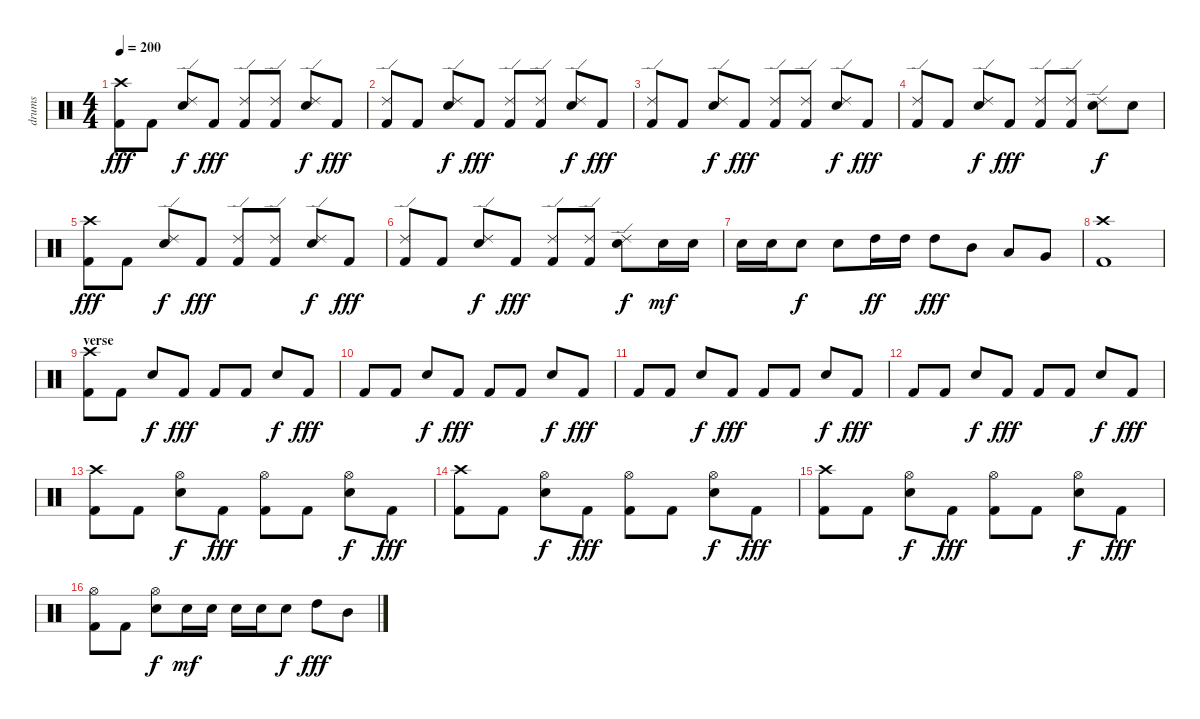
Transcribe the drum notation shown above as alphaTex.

\track ("drums" "drums") {instrument percussion}
\staff {score}
\articulation defaults
\ts (4 4)
\tempo 200
\clef neutral
\ks c
("Crash high (hit)" "Kick (hit) 2").8{dy fff} "Kick (hit) 2".8 ("Ride (edge) 2" "Snare (hit) 2").8{dy f} "Kick (hit) 2".8{dy fff} ("Ride (edge) 2" "Kick (hit) 2").8 ("Ride (edge) 2" "Kick (hit) 2").8 ("Ride (edge) 2" "Snare (hit) 2").8{dy f} "Kick (hit) 2".8{dy fff} |
("Ride (edge) 2" "Kick (hit) 2").8 "Kick (hit) 2".8 ("Ride (edge) 2" "Snare (hit) 2").8{dy f} "Kick (hit) 2".8{dy fff} ("Ride (edge) 2" "Kick (hit) 2").8 ("Ride (edge) 2" "Kick (hit) 2").8 ("Ride (edge) 2" "Snare (hit) 2").8{dy f} "Kick (hit) 2".8{dy fff} |
("Ride (edge) 2" "Kick (hit) 2").8 "Kick (hit) 2".8 ("Ride (edge) 2" "Snare (hit) 2").8{dy f} "Kick (hit) 2".8{dy fff} ("Ride (edge) 2" "Kick (hit) 2").8 ("Ride (edge) 2" "Kick (hit) 2").8 ("Ride (edge) 2" "Snare (hit) 2").8{dy f} "Kick (hit) 2".8{dy fff} |
("Ride (edge) 2" "Kick (hit) 2").8 "Kick (hit) 2".8 ("Ride (edge) 2" "Snare (hit) 2").8{dy f} "Kick (hit) 2".8{dy fff} ("Ride (edge) 2" "Kick (hit) 2").8 ("Ride (edge) 2" "Kick (hit) 2").8 ("Ride (edge) 2" "Snare (hit) 2").8{dy f} "Snare (hit) 2".8 |
("Crash high (hit)" "Kick (hit) 2").8{dy fff} "Kick (hit) 2".8 ("Ride (edge) 2" "Snare (hit) 2").8{dy f} "Kick (hit) 2".8{dy fff} ("Ride (edge) 2" "Kick (hit) 2").8 ("Ride (edge) 2" "Kick (hit) 2").8 ("Ride (edge) 2" "Snare (hit) 2").8{dy f} "Kick (hit) 2".8{dy fff} |
("Ride (edge) 2" "Kick (hit) 2").8 "Kick (hit) 2".8 ("Ride (edge) 2" "Snare (hit) 2").8{dy f} "Kick (hit) 2".8{dy fff} ("Ride (edge) 2" "Kick (hit) 2").8 ("Ride (edge) 2" "Kick (hit) 2").8 ("Ride (edge) 2" "Snare (hit) 2").8{dy f} "Snare (hit) 2".16{dy mf} "Snare (hit) 2".16 |
"Snare (hit) 2".16 "Snare (hit) 2".16 "Snare (hit) 2".8{dy f} "Snare (hit) 2".8 "High Tom (hit)".16{dy ff} "High Tom (hit)".16 "High Tom (hit)".8{dy fff} "Mid Tom (hit)".8 "Low Tom (hit)".8 "Very Low Tom (hit)".8 |
("Crash high (hit)" "Kick (hit) 2").1 |
\section ("" "verse")
("Crash high (hit)" "Kick (hit) 2").8 "Kick (hit) 2".8 "Snare (hit) 2".8{dy f} "Kick (hit) 2".8{dy fff} "Kick (hit) 2".8 "Kick (hit) 2".8 "Snare (hit) 2".8{dy f} "Kick (hit) 2".8{dy fff} |
"Kick (hit) 2".8 "Kick (hit) 2".8 "Snare (hit) 2".8{dy f} "Kick (hit) 2".8{dy fff} "Kick (hit) 2".8 "Kick (hit) 2".8 "Snare (hit) 2".8{dy f} "Kick (hit) 2".8{dy fff} |
"Kick (hit) 2".8 "Kick (hit) 2".8 "Snare (hit) 2".8{dy f} "Kick (hit) 2".8{dy fff} "Kick (hit) 2".8 "Kick (hit) 2".8 "Snare (hit) 2".8{dy f} "Kick (hit) 2".8{dy fff} |
"Kick (hit) 2".8 "Kick (hit) 2".8 "Snare (hit) 2".8{dy f} "Kick (hit) 2".8{dy fff} "Kick (hit) 2".8 "Kick (hit) 2".8 "Snare (hit) 2".8{dy f} "Kick (hit) 2".8{dy fff} |
("Crash high (hit)" "Kick (hit) 2").8 "Kick (hit) 2".8 ("Hi-Hat (open)" "Snare (hit) 2").8{dy f} "Kick (hit) 2".8{dy fff} ("Hi-Hat (open)" "Kick (hit) 2").8 "Kick (hit) 2".8 ("Hi-Hat (open)" "Snare (hit) 2").8{dy f} "Kick (hit) 2".8{dy fff} |
("Crash high (hit)" "Kick (hit) 2").8 "Kick (hit) 2".8 ("Hi-Hat (open)" "Snare (hit) 2").8{dy f} "Kick (hit) 2".8{dy fff} ("Hi-Hat (open)" "Kick (hit) 2").8 "Kick (hit) 2".8 ("Hi-Hat (open)" "Snare (hit) 2").8{dy f} "Kick (hit) 2".8{dy fff} |
("Crash high (hit)" "Kick (hit) 2").8 "Kick (hit) 2".8 ("Hi-Hat (open)" "Snare (hit) 2").8{dy f} "Kick (hit) 2".8{dy fff} ("Hi-Hat (open)" "Kick (hit) 2").8 "Kick (hit) 2".8 ("Hi-Hat (open)" "Snare (hit) 2").8{dy f} "Kick (hit) 2".8{dy fff} |
("Hi-Hat (open)" "Kick (hit) 2").8 "Kick (hit) 2".8 ("Hi-Hat (open)" "Snare (hit) 2").8{dy f} "Snare (hit) 2".16{dy mf} "Snare (hit) 2".16 "Snare (hit) 2".16 "Snare (hit) 2".16 "Snare (hit) 2".8{dy f} "High Tom (hit)".8{dy fff} "Mid Tom (hit)".8
